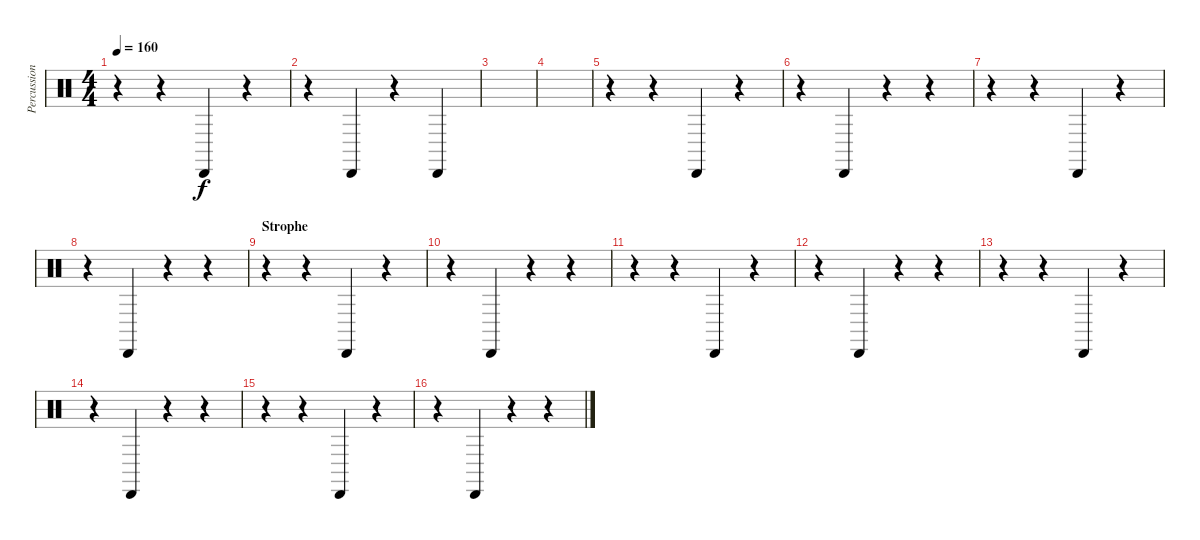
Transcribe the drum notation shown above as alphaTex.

\track ("Percussion" "Percussion") {instrument percussion}
\staff {score}
\articulation defaults
\ts (4 4)
\tempo 160
\clef neutral
\ks c
r.4{dy f} r.4 "Cabasa (hit)".4 r.4 |
r.4 "Cabasa (hit)".4 r.4 "Cabasa (hit)".4 |
|
|
r.4 r.4 "Cabasa (hit)".4 r.4 |
r.4 "Cabasa (hit)".4 r.4 r.4 |
r.4 r.4 "Cabasa (hit)".4 r.4 |
r.4 "Cabasa (hit)".4 r.4 r.4 |
\section ("" "Strophe")
r.4 r.4 "Cabasa (hit)".4 r.4 |
r.4 "Cabasa (hit)".4 r.4 r.4 |
r.4 r.4 "Cabasa (hit)".4 r.4 |
r.4 "Cabasa (hit)".4 r.4 r.4 |
r.4 r.4 "Cabasa (hit)".4 r.4 |
r.4 "Cabasa (hit)".4 r.4 r.4 |
r.4 r.4 "Cabasa (hit)".4 r.4 |
r.4 "Cabasa (hit)".4 r.4 r.4
